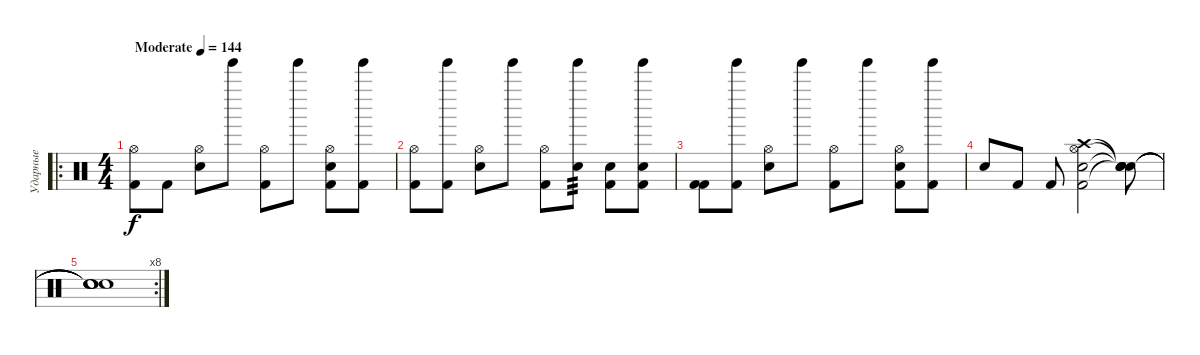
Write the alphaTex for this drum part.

\track ("Ударные" "Ударные") {instrument percussion}
\staff {score}
\articulation defaults
\ro
\ts (4 4)
\tempo (144 "Moderate")
\clef neutral
\ks c
("Kick (hit) 2" "Hi-Hat (open)").8{dy f} "Kick (hit) 2".8 ("Hi-Hat (open)" "Snare (hit) 2").8 "Tinkle Bell (hit)".8 ("Kick (hit) 2" "Hi-Hat (open)").8 "Tinkle Bell (hit)".8 ("Kick (hit) 2" "Hi-Hat (open)" "Snare (hit) 2").8 ("Kick (hit) 2" "Tinkle Bell (hit)").8 |
("Kick (hit) 2" "Hi-Hat (open)").8 ("Kick (hit) 2" "Tinkle Bell (hit)").8 ("Hi-Hat (open)" "Snare (hit) 2").8 "Tinkle Bell (hit)".8 ("Kick (hit) 2" "Hi-Hat (open)").8 ("Tinkle Bell (hit)" "Snare (hit) 2").8{tp 3} ("Kick (hit) 2" "Snare (hit) 2").8 ("Kick (hit) 2" "Tinkle Bell (hit)" "Snare (hit) 2").8 |
("Kick (hit) 2" "Kick (hit) 2").8 ("Kick (hit) 2" "Tinkle Bell (hit)").8 ("Hi-Hat (open)" "Snare (hit) 2").8 "Tinkle Bell (hit)".8 ("Kick (hit) 2" "Hi-Hat (open)").8 "Tinkle Bell (hit)".8 ("Kick (hit) 2" "Hi-Hat (open)" "Snare (hit) 2").8 ("Kick (hit) 2" "Tinkle Bell (hit)").8 |
"Snare (hit) 2".8 "Kick (hit) 2".8 "Kick (hit) 2".8 ("Hi-Hat (open)" "Kick (hit) 2" "Snare (hit) 2" "Crash high (hit)").2 ("Snare (hit)"{t} "Snare (hit)"{t} "Snare (hit)"{t} "Snare (hit)"{t}).8 |
\rc 8
("Snare (hit)"{t} "Snare (hit)"{t} "Snare (hit)"{t} "Snare (hit)"{t}).1
